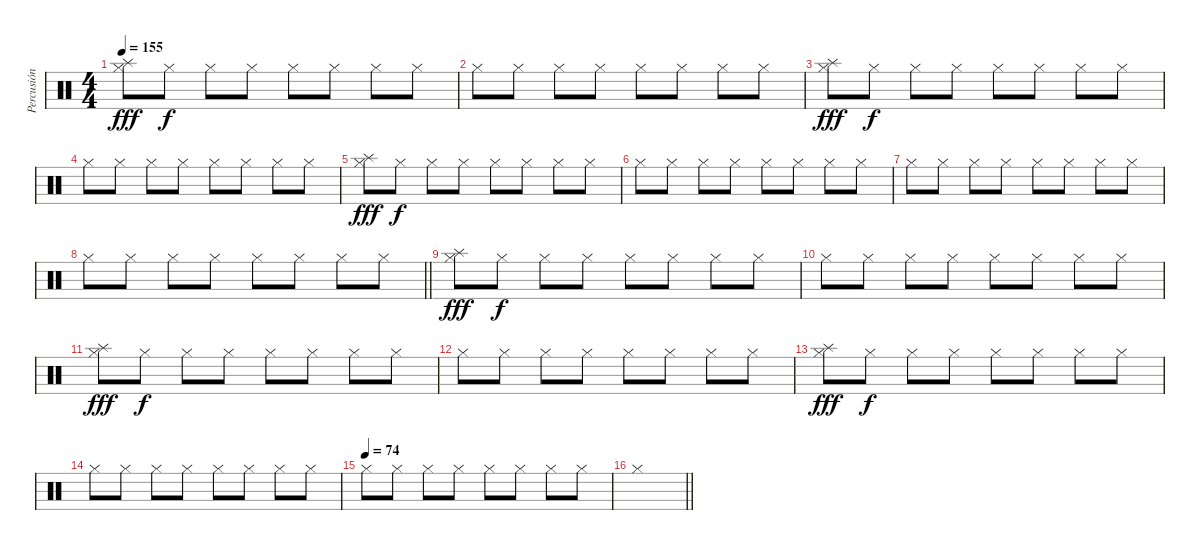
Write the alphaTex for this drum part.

\track ("Percusión" "Percusión") {instrument percussion}
\staff {score}
\articulation defaults
\ts (4 4)
\tempo 155
\clef neutral
\ks c
("Hi-Hat (closed)" "Splash (hit)").8{dy fff} "Hi-Hat (closed)".8{dy f} "Hi-Hat (closed)".8 "Hi-Hat (closed)".8 "Hi-Hat (closed)".8 "Hi-Hat (closed)".8 "Hi-Hat (closed)".8 "Hi-Hat (closed)".8 |
"Hi-Hat (closed)".8 "Hi-Hat (closed)".8 "Hi-Hat (closed)".8 "Hi-Hat (closed)".8 "Hi-Hat (closed)".8 "Hi-Hat (closed)".8 "Hi-Hat (closed)".8 "Hi-Hat (closed)".8 |
("Hi-Hat (closed)" "Splash (hit)").8{dy fff} "Hi-Hat (closed)".8{dy f} "Hi-Hat (closed)".8 "Hi-Hat (closed)".8 "Hi-Hat (closed)".8 "Hi-Hat (closed)".8 "Hi-Hat (closed)".8 "Hi-Hat (closed)".8 |
"Hi-Hat (closed)".8 "Hi-Hat (closed)".8 "Hi-Hat (closed)".8 "Hi-Hat (closed)".8 "Hi-Hat (closed)".8 "Hi-Hat (closed)".8 "Hi-Hat (closed)".8 "Hi-Hat (closed)".8 |
("Hi-Hat (closed)" "Splash (hit)").8{dy fff} "Hi-Hat (closed)".8{dy f} "Hi-Hat (closed)".8 "Hi-Hat (closed)".8 "Hi-Hat (closed)".8 "Hi-Hat (closed)".8 "Hi-Hat (closed)".8 "Hi-Hat (closed)".8 |
"Hi-Hat (closed)".8 "Hi-Hat (closed)".8 "Hi-Hat (closed)".8 "Hi-Hat (closed)".8 "Hi-Hat (closed)".8 "Hi-Hat (closed)".8 "Hi-Hat (closed)".8 "Hi-Hat (closed)".8 |
"Hi-Hat (closed)".8 "Hi-Hat (closed)".8 "Hi-Hat (closed)".8 "Hi-Hat (closed)".8 "Hi-Hat (closed)".8 "Hi-Hat (closed)".8 "Hi-Hat (closed)".8 "Hi-Hat (closed)".8 |
\barLineRight lightlight "Hi-Hat (closed)".8 "Hi-Hat (closed)".8 "Hi-Hat (closed)".8 "Hi-Hat (closed)".8 "Hi-Hat (closed)".8 "Hi-Hat (closed)".8 "Hi-Hat (closed)".8 "Hi-Hat (closed)".8
|
("Hi-Hat (closed)" "Splash (hit)").8{dy fff} "Hi-Hat (closed)".8{dy f} "Hi-Hat (closed)".8 "Hi-Hat (closed)".8 "Hi-Hat (closed)".8 "Hi-Hat (closed)".8 "Hi-Hat (closed)".8 "Hi-Hat (closed)".8 |
"Hi-Hat (closed)".8 "Hi-Hat (closed)".8 "Hi-Hat (closed)".8 "Hi-Hat (closed)".8 "Hi-Hat (closed)".8 "Hi-Hat (closed)".8 "Hi-Hat (closed)".8 "Hi-Hat (closed)".8 |
("Hi-Hat (closed)" "Splash (hit)").8{dy fff} "Hi-Hat (closed)".8{dy f} "Hi-Hat (closed)".8 "Hi-Hat (closed)".8 "Hi-Hat (closed)".8 "Hi-Hat (closed)".8 "Hi-Hat (closed)".8 "Hi-Hat (closed)".8 |
"Hi-Hat (closed)".8 "Hi-Hat (closed)".8 "Hi-Hat (closed)".8 "Hi-Hat (closed)".8 "Hi-Hat (closed)".8 "Hi-Hat (closed)".8 "Hi-Hat (closed)".8 "Hi-Hat (closed)".8 |
("Hi-Hat (closed)" "Splash (hit)").8{dy fff} "Hi-Hat (closed)".8{dy f} "Hi-Hat (closed)".8 "Hi-Hat (closed)".8 "Hi-Hat (closed)".8 "Hi-Hat (closed)".8 "Hi-Hat (closed)".8 "Hi-Hat (closed)".8 |
"Hi-Hat (closed)".8 "Hi-Hat (closed)".8 "Hi-Hat (closed)".8 "Hi-Hat (closed)".8 "Hi-Hat (closed)".8 "Hi-Hat (closed)".8 "Hi-Hat (closed)".8 "Hi-Hat (closed)".8 |
\tempo (74)
"Hi-Hat (closed)".8 "Hi-Hat (closed)".8 "Hi-Hat (closed)".8 "Hi-Hat (closed)".8 "Hi-Hat (closed)".8 "Hi-Hat (closed)".8 "Hi-Hat (closed)".8 "Hi-Hat (closed)".8 |
\barLineRight lightlight "Hi-Hat (closed)".1
